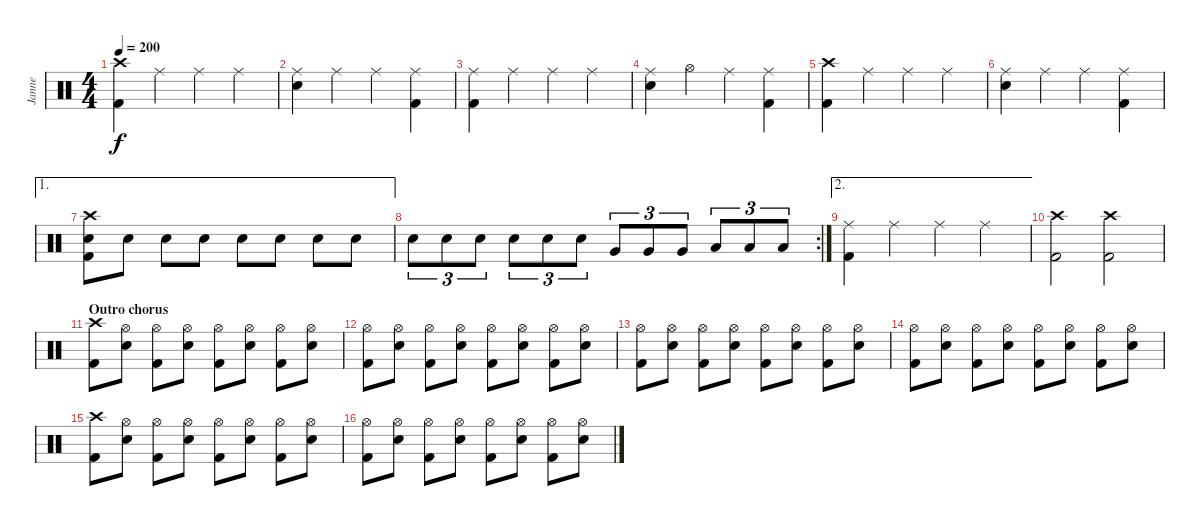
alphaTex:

\track ("Janne" "Janne") {instrument percussion}
\staff {score}
\articulation defaults
\ts (4 4)
\tempo 200
\clef neutral
\ks c
("Crash high (hit)" "Kick (hit) 2").4{dy f} "Ride (middle)".4 "Ride (middle)".4 "Ride (middle)".4 |
("Ride (middle)" "Electric Snare (hit)").4 "Ride (middle)".4 "Ride (middle)".4 ("Ride (middle)" "Kick (hit) 2").4 |
("Ride (middle)" "Kick (hit) 2").4 "Ride (middle)".4 "Ride (middle)".4 "Ride (middle)".4 |
("Ride (middle)" "Electric Snare (hit)").4 "Hi-Hat (open)".4 "Ride (middle)".4 ("Ride (middle)" "Kick (hit) 2").4 |
("Crash high (hit)" "Kick (hit) 2").4 "Ride (middle)".4 "Ride (middle)".4 "Ride (middle)".4 |
("Ride (middle)" "Electric Snare (hit)").4 "Ride (middle)".4 "Ride (middle)".4 ("Ride (middle)" "Kick (hit) 2").4 |
\ae 1
("Crash high (hit)" "Electric Snare (hit)" "Kick (hit) 2").8 "Electric Snare (hit)".8 "Electric Snare (hit)".8 "Electric Snare (hit)".8 "Electric Snare (hit)".8 "Electric Snare (hit)".8 "Electric Snare (hit)".8 "Electric Snare (hit)".8 |
\rc 2 "Electric Snare (hit)".8{tu (3 2)} "Electric Snare (hit)".8{tu (3 2)} "Electric Snare (hit)".8{tu (3 2)} "Electric Snare (hit)".8{tu (3 2)} "Electric Snare (hit)".8{tu (3 2)} "Electric Snare (hit)".8{tu (3 2)} "Very Low Tom (hit)".8{tu (3 2)} "Very Low Tom (hit)".8{tu (3 2)} "Very Low Tom (hit)".8{tu (3 2)} "Low Floor Tom (hit)".8{tu (3 2)} "Low Floor Tom (hit)".8{tu (3 2)} "Low Floor Tom (hit)".8{tu (3 2)}
|
\ae 2
("Ride (middle)" "Kick (hit) 2").4 "Ride (middle)".4 "Ride (middle)".4 "Ride (middle)".4 |
("Crash high (hit)" "Kick (hit) 2").2 ("Crash high (hit)" "Kick (hit) 2").2 |
\section ("" "Outro chorus")
("Crash high (hit)" "Kick (hit) 2").8 ("Hi-Hat (open)" "Electric Snare (hit)").8 ("Hi-Hat (open)" "Kick (hit) 2").8 ("Hi-Hat (open)" "Electric Snare (hit)").8 ("Hi-Hat (open)" "Kick (hit) 2").8 ("Hi-Hat (open)" "Electric Snare (hit)").8 ("Hi-Hat (open)" "Kick (hit) 2").8 ("Hi-Hat (open)" "Electric Snare (hit)").8 |
("Hi-Hat (open)" "Kick (hit) 2").8 ("Hi-Hat (open)" "Electric Snare (hit)").8 ("Hi-Hat (open)" "Kick (hit) 2").8 ("Hi-Hat (open)" "Electric Snare (hit)").8 ("Hi-Hat (open)" "Kick (hit) 2").8 ("Hi-Hat (open)" "Electric Snare (hit)").8 ("Hi-Hat (open)" "Kick (hit) 2").8 ("Hi-Hat (open)" "Electric Snare (hit)").8 |
("Hi-Hat (open)" "Kick (hit) 2").8 ("Hi-Hat (open)" "Electric Snare (hit)").8 ("Hi-Hat (open)" "Kick (hit) 2").8 ("Hi-Hat (open)" "Electric Snare (hit)").8 ("Hi-Hat (open)" "Kick (hit) 2").8 ("Hi-Hat (open)" "Electric Snare (hit)").8 ("Hi-Hat (open)" "Kick (hit) 2").8 ("Hi-Hat (open)" "Electric Snare (hit)").8 |
("Hi-Hat (open)" "Kick (hit) 2").8 ("Hi-Hat (open)" "Electric Snare (hit)").8 ("Hi-Hat (open)" "Kick (hit) 2").8 ("Hi-Hat (open)" "Electric Snare (hit)").8 ("Hi-Hat (open)" "Kick (hit) 2").8 ("Hi-Hat (open)" "Electric Snare (hit)").8 ("Hi-Hat (open)" "Kick (hit) 2").8 ("Hi-Hat (open)" "Electric Snare (hit)").8 |
("Crash high (hit)" "Kick (hit) 2").8 ("Hi-Hat (open)" "Electric Snare (hit)").8 ("Hi-Hat (open)" "Kick (hit) 2").8 ("Hi-Hat (open)" "Electric Snare (hit)").8 ("Hi-Hat (open)" "Kick (hit) 2").8 ("Hi-Hat (open)" "Electric Snare (hit)").8 ("Hi-Hat (open)" "Kick (hit) 2").8 ("Hi-Hat (open)" "Electric Snare (hit)").8 |
("Hi-Hat (open)" "Kick (hit) 2").8 ("Hi-Hat (open)" "Electric Snare (hit)").8 ("Hi-Hat (open)" "Kick (hit) 2").8 ("Hi-Hat (open)" "Electric Snare (hit)").8 ("Hi-Hat (open)" "Kick (hit) 2").8 ("Hi-Hat (open)" "Electric Snare (hit)").8 ("Hi-Hat (open)" "Kick (hit) 2").8 ("Hi-Hat (open)" "Electric Snare (hit)").8
